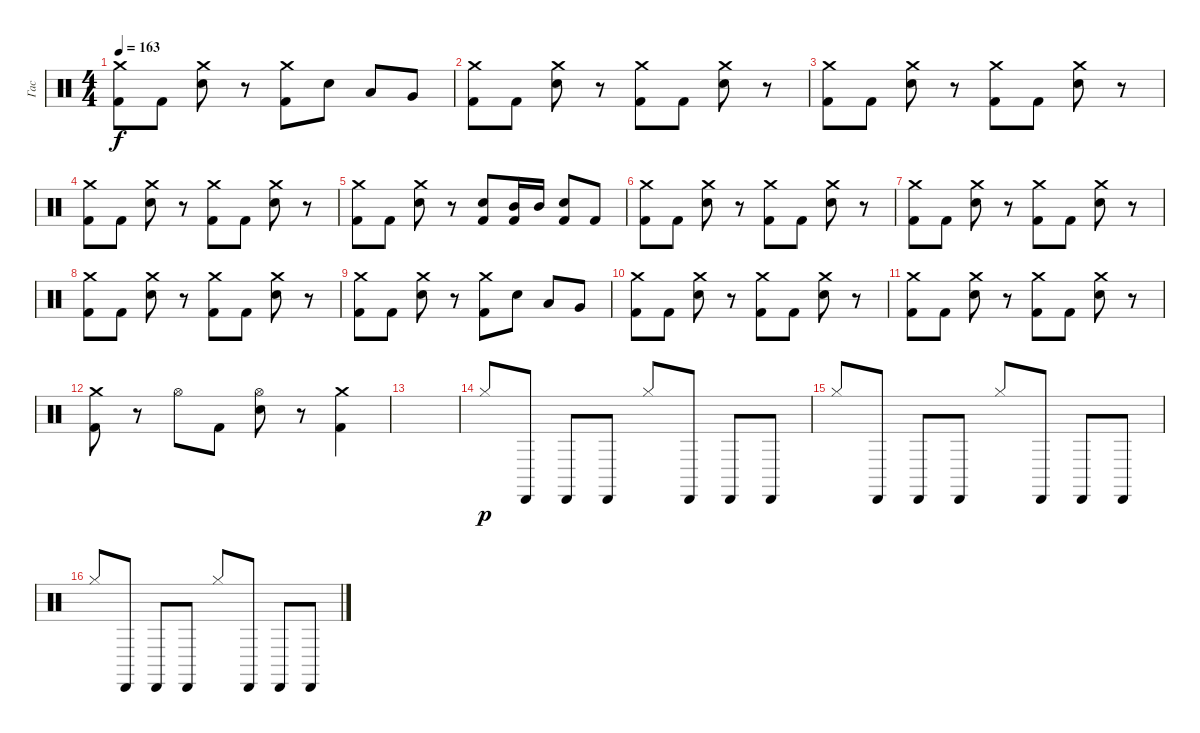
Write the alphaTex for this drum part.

\track ("Гас" "Гас") {instrument percussion}
\staff {score}
\articulation defaults
\ts (4 4)
\tempo 163
\clef neutral
\ks c
("Crash medium (hit)" "Kick (hit) 2").8{dy f} "Kick (hit) 2".8 ("Crash medium (hit)" "Electric Snare (hit)").8 r.8 ("Crash medium (hit)" "Kick (hit) 2").8 "Electric Snare (hit)".8 "Low Tom (hit)".8 "Very Low Tom (hit)".8 |
("Crash medium (hit)" "Kick (hit) 2").8 "Kick (hit) 2".8 ("Crash medium (hit)" "Electric Snare (hit)").8 r.8 ("Crash medium (hit)" "Kick (hit) 2").8 "Kick (hit) 2".8 ("Crash medium (hit)" "Electric Snare (hit)").8 r.8 |
("Crash medium (hit)" "Kick (hit) 2").8 "Kick (hit) 2".8 ("Crash medium (hit)" "Electric Snare (hit)").8 r.8 ("Crash medium (hit)" "Kick (hit) 2").8 "Kick (hit) 2".8 ("Crash medium (hit)" "Electric Snare (hit)").8 r.8 |
("Crash medium (hit)" "Kick (hit) 2").8 "Kick (hit) 2".8 ("Crash medium (hit)" "Electric Snare (hit)").8 r.8 ("Crash medium (hit)" "Kick (hit) 2").8 "Kick (hit) 2".8 ("Crash medium (hit)" "Electric Snare (hit)").8 r.8 |
("Crash medium (hit)" "Kick (hit) 2").8 "Kick (hit) 2".8 ("Crash medium (hit)" "Electric Snare (hit)").8 r.8 ("Electric Snare (hit)" "Kick (hit) 2").8 ("Mid Tom (hit)" "Kick (hit) 2").16 "Mid Tom (hit)".16 ("Electric Snare (hit)" "Kick (hit) 2").8 "Kick (hit) 2".8 |
("Crash medium (hit)" "Kick (hit) 2").8 "Kick (hit) 2".8 ("Crash medium (hit)" "Electric Snare (hit)").8 r.8 ("Crash medium (hit)" "Kick (hit) 2").8 "Kick (hit) 2".8 ("Crash medium (hit)" "Electric Snare (hit)").8 r.8 |
("Crash medium (hit)" "Kick (hit) 2").8 "Kick (hit) 2".8 ("Crash medium (hit)" "Electric Snare (hit)").8 r.8 ("Crash medium (hit)" "Kick (hit) 2").8 "Kick (hit) 2".8 ("Crash medium (hit)" "Electric Snare (hit)").8 r.8 |
("Crash medium (hit)" "Kick (hit) 2").8 "Kick (hit) 2".8 ("Crash medium (hit)" "Electric Snare (hit)").8 r.8 ("Crash medium (hit)" "Kick (hit) 2").8 "Kick (hit) 2".8 ("Crash medium (hit)" "Electric Snare (hit)").8 r.8 |
("Crash medium (hit)" "Kick (hit) 2").8 "Kick (hit) 2".8 ("Crash medium (hit)" "Electric Snare (hit)").8 r.8 ("Crash medium (hit)" "Kick (hit) 2").8 "Electric Snare (hit)".8 "Low Tom (hit)".8 "Very Low Tom (hit)".8 |
("Crash medium (hit)" "Kick (hit) 2").8 "Kick (hit) 2".8 ("Crash medium (hit)" "Electric Snare (hit)").8 r.8 ("Crash medium (hit)" "Kick (hit) 2").8 "Kick (hit) 2".8 ("Crash medium (hit)" "Electric Snare (hit)").8 r.8 |
("Crash medium (hit)" "Kick (hit) 2").8 "Kick (hit) 2".8 ("Crash medium (hit)" "Electric Snare (hit)").8 r.8 ("Crash medium (hit)" "Kick (hit) 2").8 "Kick (hit) 2".8 ("Crash medium (hit)" "Electric Snare (hit)").8 r.8 |
("Crash medium (hit)" "Kick (hit) 2").8 r.8 "Hi-Hat (open)".8 "Kick (hit) 2".8 ("Hi-Hat (open)" "Electric Snare (hit)").8 r.8 ("Crash medium (hit)" "Kick (hit) 2").4 |
|
"Hi-Hat (closed)".8{dy p} "Cabasa (hit)".8 "Cabasa (hit)".8 "Cabasa (hit)".8 "Hi-Hat (closed)".8 "Cabasa (hit)".8 "Cabasa (hit)".8 "Cabasa (hit)".8 |
"Hi-Hat (closed)".8 "Cabasa (hit)".8 "Cabasa (hit)".8 "Cabasa (hit)".8 "Hi-Hat (closed)".8 "Cabasa (hit)".8 "Cabasa (hit)".8 "Cabasa (hit)".8 |
"Hi-Hat (closed)".8 "Cabasa (hit)".8 "Cabasa (hit)".8 "Cabasa (hit)".8 "Hi-Hat (closed)".8 "Cabasa (hit)".8 "Cabasa (hit)".8 "Cabasa (hit)".8
